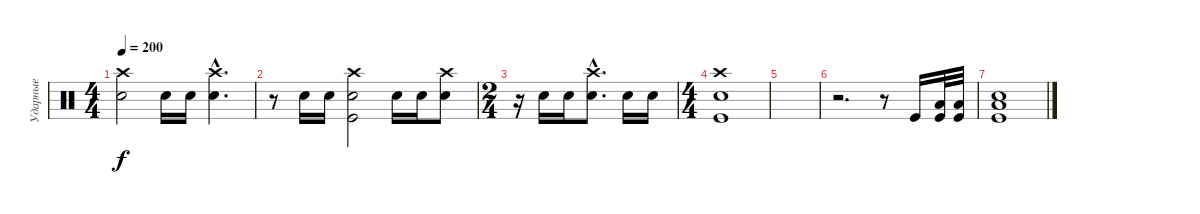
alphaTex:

\track ("Ударные" "Ударные") {instrument percussion}
\staff {score}
\articulation defaults
\ts (4 4)
\tempo 200
\clef neutral
\ks c
("Crash high (hit)" "Electric Snare (hit)").2{dy f} "Electric Snare (hit)".16 "Electric Snare (hit)".16 ("Crash high (hit)"{hac} "Electric Snare (hit)"{hac}).4{d} |
r.8 "Electric Snare (hit)".16 "Electric Snare (hit)".16 ("Crash high (hit)" "Electric Snare (hit)" "Kick (hit)").2 "Electric Snare (hit)".16 "Electric Snare (hit)".16 ("Crash high (hit)" "Electric Snare (hit)").8 |
\ts (2 4)
r.16 "Electric Snare (hit)".16 "Electric Snare (hit)".16 ("Crash high (hit)"{hac} "Electric Snare (hit)"{hac}).8{d} "Electric Snare (hit)".16 "Electric Snare (hit)".16 |
\ts (4 4)
("Crash high (hit)" "Electric Snare (hit)" "Kick (hit)").1 |
|
r.2{d} r.8 "Kick (hit)".16 ("Low Tom (hit)" "Kick (hit)").32 ("Low Tom (hit)" "Kick (hit)").32 |
("Electric Snare (hit)" "Low Tom (hit)" "Kick (hit)").1
